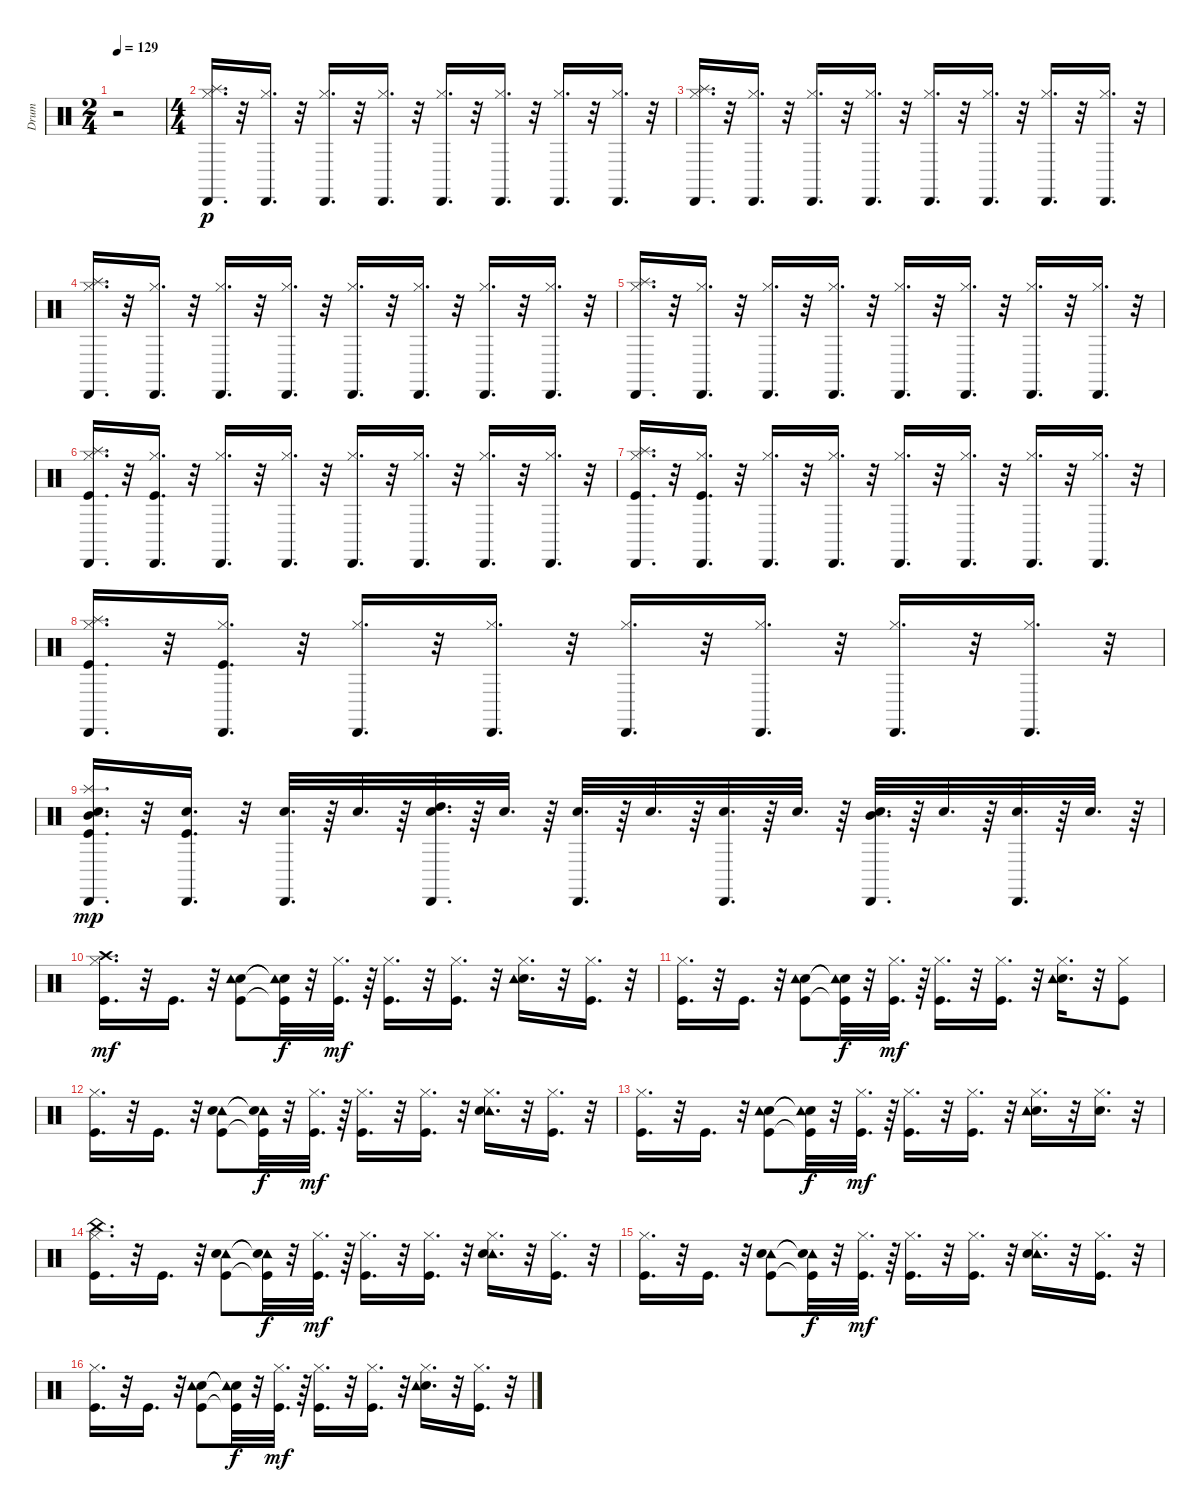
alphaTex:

\track ("Drum" "Drum") {instrument percussion}
\staff {score}
\articulation defaults
\ts (2 4)
\tempo 129
\clef neutral
\ks c
r.2{dy p} |
\ts (4 4)
("Cabasa (hit)" "Splash (hit)" "Hi-Hat (closed)").16{d} r.32 ("Cabasa (hit)" "Hi-Hat (closed)").16{d} r.32 ("Cabasa (hit)" "Hi-Hat (closed)").16{d} r.32 ("Cabasa (hit)" "Hi-Hat (closed)").16{d} r.32 ("Cabasa (hit)" "Hi-Hat (closed)").16{d} r.32 ("Cabasa (hit)" "Hi-Hat (closed)").16{d} r.32 ("Cabasa (hit)" "Hi-Hat (closed)").16{d} r.32 ("Cabasa (hit)" "Hi-Hat (closed)").16{d} r.32 |
("Hi-Hat (closed)" "Splash (hit)" "Cabasa (hit)").16{d} r.32 ("Hi-Hat (closed)" "Cabasa (hit)").16{d} r.32 ("Hi-Hat (closed)" "Cabasa (hit)").16{d} r.32 ("Hi-Hat (closed)" "Cabasa (hit)").16{d} r.32 ("Hi-Hat (closed)" "Cabasa (hit)").16{d} r.32 ("Hi-Hat (closed)" "Cabasa (hit)").16{d} r.32 ("Hi-Hat (closed)" "Cabasa (hit)").16{d} r.32 ("Hi-Hat (closed)" "Cabasa (hit)").16{d} r.32 |
("Hi-Hat (closed)" "Splash (hit)" "Cabasa (hit)").16{d} r.32 ("Hi-Hat (closed)" "Cabasa (hit)").16{d} r.32 ("Hi-Hat (closed)" "Cabasa (hit)").16{d} r.32 ("Hi-Hat (closed)" "Cabasa (hit)").16{d} r.32 ("Hi-Hat (closed)" "Cabasa (hit)").16{d} r.32 ("Hi-Hat (closed)" "Cabasa (hit)").16{d} r.32 ("Hi-Hat (closed)" "Cabasa (hit)").16{d} r.32 ("Hi-Hat (closed)" "Cabasa (hit)").16{d} r.32 |
("Hi-Hat (closed)" "Splash (hit)" "Cabasa (hit)").16{d} r.32 ("Hi-Hat (closed)" "Cabasa (hit)").16{d} r.32 ("Hi-Hat (closed)" "Cabasa (hit)").16{d} r.32 ("Hi-Hat (closed)" "Cabasa (hit)").16{d} r.32 ("Hi-Hat (closed)" "Cabasa (hit)").16{d} r.32 ("Hi-Hat (closed)" "Cabasa (hit)").16{d} r.32 ("Hi-Hat (closed)" "Cabasa (hit)").16{d} r.32 ("Hi-Hat (closed)" "Cabasa (hit)").16{d} r.32 |
("Cabasa (hit)" "Kick (hit)" "Hi-Hat (closed)" "Splash (hit)").16{d} r.32 ("Cabasa (hit)" "Kick (hit)" "Hi-Hat (closed)").16{d} r.32 ("Cabasa (hit)" "Hi-Hat (closed)").16{d} r.32 ("Cabasa (hit)" "Hi-Hat (closed)").16{d} r.32 ("Cabasa (hit)" "Hi-Hat (closed)").16{d} r.32 ("Cabasa (hit)" "Hi-Hat (closed)").16{d} r.32 ("Cabasa (hit)" "Hi-Hat (closed)").16{d} r.32 ("Cabasa (hit)" "Hi-Hat (closed)").16{d} r.32 |
("Splash (hit)" "Hi-Hat (closed)" "Kick (hit)" "Cabasa (hit)").16{d} r.32 ("Hi-Hat (closed)" "Kick (hit)" "Cabasa (hit)").16{d} r.32 ("Hi-Hat (closed)" "Cabasa (hit)").16{d} r.32 ("Hi-Hat (closed)" "Cabasa (hit)").16{d} r.32 ("Hi-Hat (closed)" "Cabasa (hit)").16{d} r.32 ("Hi-Hat (closed)" "Cabasa (hit)").16{d} r.32 ("Hi-Hat (closed)" "Cabasa (hit)").16{d} r.32 ("Hi-Hat (closed)" "Cabasa (hit)").16{d} r.32 |
("Splash (hit)" "Hi-Hat (closed)" "Kick (hit)" "Cabasa (hit)").16{d} r.32 ("Hi-Hat (closed)" "Kick (hit)" "Cabasa (hit)").16{d} r.32 ("Hi-Hat (closed)" "Cabasa (hit)").16{d} r.32 ("Hi-Hat (closed)" "Cabasa (hit)").16{d} r.32 ("Hi-Hat (closed)" "Cabasa (hit)").16{d} r.32 ("Hi-Hat (closed)" "Cabasa (hit)").16{d} r.32 ("Hi-Hat (closed)" "Cabasa (hit)").16{d} r.32 ("Hi-Hat (closed)" "Cabasa (hit)").16{d} r.32 |
("Splash (hit)" "Kick (hit)" "Cabasa (hit)" "Mid Tom (hit)" "Snare (hit) 2").16{d dy mp} r.32 ("Kick (hit)" "Cabasa (hit)" "Snare (hit) 2").16{d} r.32 ("Cabasa (hit)" "Snare (hit) 2").32{d} r.64 "Snare (hit) 2".32{d} r.64 ("Cabasa (hit)" "High Tom (hit)" "Snare (hit) 2").32{d} r.64 "Snare (hit) 2".32{d} r.64 ("Cabasa (hit)" "Snare (hit) 2").32{d} r.64 "Snare (hit) 2".32{d} r.64 ("Cabasa (hit)" "Snare (hit) 2").32{d} r.64 "Snare (hit) 2".32{d} r.64 ("Cabasa (hit)" "Mid Tom (hit)" "Snare (hit) 2").32{d} r.64 "Snare (hit) 2".32{d} r.64 ("Cabasa (hit)" "Snare (hit) 2").32{d} r.64 "Snare (hit) 2".32{d} r.64 |
("Crash high (hit)" "Kick (hit)" "Hi-Hat (closed)").16{d dy mf} r.32 "Kick (hit)".16{d} r.32 ("Snare (hit) 2" "Kick (hit)" "Tambourine (hit)").8 ("Snare (hit) 2"{t} "Kick (hit)"{t} "Tambourine (hit)"{t}).32{dy f} r.32 ("Hi-Hat (closed)" "Kick (hit)").32{d dy mf} r.64 ("Hi-Hat (closed)" "Kick (hit)").16{d} r.32 ("Hi-Hat (closed)" "Kick (hit)").16{d} r.32 ("Hi-Hat (closed)" "Snare (hit) 2" "Tambourine (hit)").16{d} r.32 ("Hi-Hat (closed)" "Kick (hit)").16{d} r.32 |
("Kick (hit)" "Hi-Hat (closed)").16{d} r.32 "Kick (hit)".16{d} r.32 ("Snare (hit) 2" "Kick (hit)" "Tambourine (hit)").8 ("Snare (hit) 2"{t} "Kick (hit)"{t} "Tambourine (hit)"{t}).32{dy f} r.32 ("Hi-Hat (closed)" "Kick (hit)").32{d dy mf} r.64 ("Hi-Hat (closed)" "Kick (hit)").16{d} r.32 ("Hi-Hat (closed)" "Kick (hit)").16{d} r.32 ("Hi-Hat (closed)" "Snare (hit) 2" "Tambourine (hit)").16{d} r.32 ("Hi-Hat (closed)" "Kick (hit)").8 |
("Hi-Hat (closed)" "Kick (hit)").16{d} r.32 "Kick (hit)".16{d} r.32 ("Tambourine (hit)" "Kick (hit)" "Snare (hit) 2").8 ("Tambourine (hit)"{t} "Kick (hit)"{t} "Snare (hit) 2"{t}).32{dy f} r.32 ("Kick (hit)" "Hi-Hat (closed)").32{d dy mf} r.64 ("Kick (hit)" "Hi-Hat (closed)").16{d} r.32 ("Kick (hit)" "Hi-Hat (closed)").16{d} r.32 ("Tambourine (hit)" "Snare (hit) 2" "Hi-Hat (closed)").16{d} r.32 ("Kick (hit)" "Hi-Hat (closed)").16{d} r.32 |
("Kick (hit)" "Hi-Hat (closed)").16{d} r.32 "Kick (hit)".16{d} r.32 ("Snare (hit) 2" "Kick (hit)" "Tambourine (hit)").8 ("Snare (hit) 2"{t} "Kick (hit)"{t} "Tambourine (hit)"{t}).32{dy f} r.32 ("Hi-Hat (closed)" "Kick (hit)").32{d dy mf} r.64 ("Hi-Hat (closed)" "Kick (hit)").16{d} r.32 ("Hi-Hat (closed)" "Kick (hit)").16{d} r.32 ("Hi-Hat (closed)" "Snare (hit) 2" "Tambourine (hit)").16{d} r.32 ("Snare (hit) 2" "Hi-Hat (closed)").16{d} r.32 |
("China (hit)" "Hi-Hat (closed)" "Kick (hit)").16{d} r.32 "Kick (hit)".16{d} r.32 ("Tambourine (hit)" "Kick (hit)" "Snare (hit) 2").8 ("Tambourine (hit)"{t} "Kick (hit)"{t} "Snare (hit) 2"{t}).32{dy f} r.32 ("Kick (hit)" "Hi-Hat (closed)").32{d dy mf} r.64 ("Kick (hit)" "Hi-Hat (closed)").16{d} r.32 ("Kick (hit)" "Hi-Hat (closed)").16{d} r.32 ("Tambourine (hit)" "Snare (hit) 2" "Hi-Hat (closed)").16{d} r.32 ("Kick (hit)" "Hi-Hat (closed)").16{d} r.32 |
("Hi-Hat (closed)" "Kick (hit)").16{d} r.32 "Kick (hit)".16{d} r.32 ("Tambourine (hit)" "Kick (hit)" "Snare (hit) 2").8 ("Tambourine (hit)"{t} "Kick (hit)"{t} "Snare (hit) 2"{t}).32{dy f} r.32 ("Kick (hit)" "Hi-Hat (closed)").32{d dy mf} r.64 ("Kick (hit)" "Hi-Hat (closed)").16{d} r.32 ("Kick (hit)" "Hi-Hat (closed)").16{d} r.32 ("Tambourine (hit)" "Snare (hit) 2" "Hi-Hat (closed)").16{d} r.32 ("Kick (hit)" "Hi-Hat (closed)").16{d} r.32 |
("Kick (hit)" "Hi-Hat (closed)").16{d} r.32 "Kick (hit)".16{d} r.32 ("Snare (hit) 2" "Kick (hit)" "Tambourine (hit)").8 ("Snare (hit) 2"{t} "Kick (hit)"{t} "Tambourine (hit)"{t}).32{dy f} r.32 ("Hi-Hat (closed)" "Kick (hit)").32{d dy mf} r.64 ("Hi-Hat (closed)" "Kick (hit)").16{d} r.32 ("Hi-Hat (closed)" "Kick (hit)").16{d} r.32 ("Hi-Hat (closed)" "Snare (hit) 2" "Tambourine (hit)").16{d} r.32 ("Hi-Hat (closed)" "Kick (hit)").16{d} r.32
